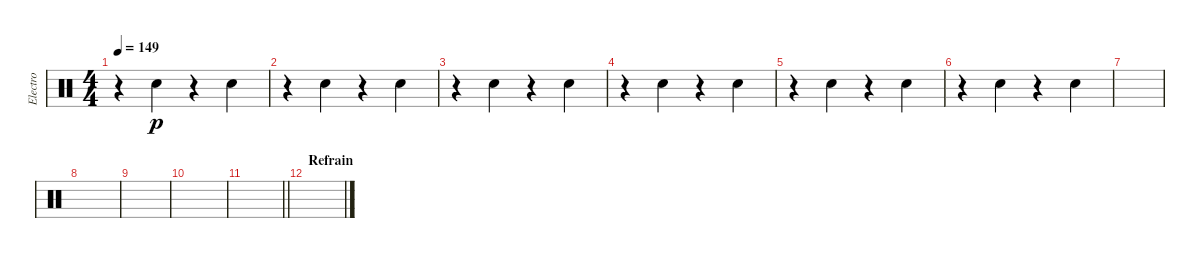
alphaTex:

\track ("Electro" "Electro") {instrument percussion}
\staff {score}
\articulation defaults
\ts (4 4)
\tempo 149
\clef neutral
\ks c
r.4{dy p} "Electric Snare (hit)".4 r.4 "Electric Snare (hit)".4 |
r.4 "Electric Snare (hit)".4 r.4 "Electric Snare (hit)".4 |
r.4 "Electric Snare (hit)".4 r.4 "Electric Snare (hit)".4 |
r.4 "Electric Snare (hit)".4 r.4 "Electric Snare (hit)".4 |
r.4 "Electric Snare (hit)".4 r.4 "Electric Snare (hit)".4 |
r.4 "Electric Snare (hit)".4 r.4 "Electric Snare (hit)".4 |
|
|
|
|
\barLineRight lightlight
|
\section ("" "Refrain")
